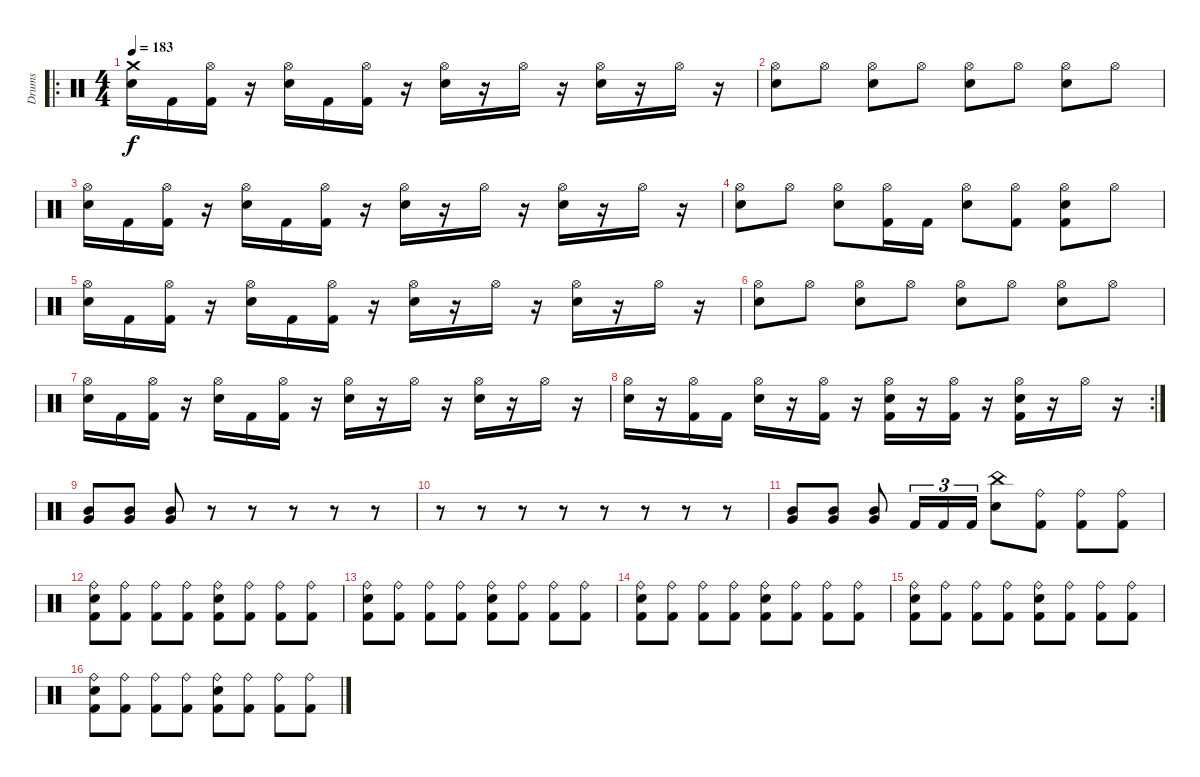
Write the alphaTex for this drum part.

\track ("Drums" "Drums") {instrument percussion}
\staff {score}
\articulation defaults
\ro
\ts (4 4)
\tempo 183
\clef neutral
\ks c
("Electric Snare (hit)" "Crash medium (hit)").16{dy f} "Kick (hit) 2".16 ("Kick (hit) 2" "Hi-Hat (open)").16 r.16 ("Electric Snare (hit)" "Hi-Hat (open)").16 "Kick (hit) 2".16 ("Kick (hit) 2" "Hi-Hat (open)").16 r.16 ("Electric Snare (hit)" "Hi-Hat (open)").16 r.16 "Hi-Hat (open)".16 r.16 ("Electric Snare (hit)" "Hi-Hat (open)").16 r.16 "Hi-Hat (open)".16 r.16 |
("Electric Snare (hit)" "Hi-Hat (open)").8 "Hi-Hat (open)".8 ("Electric Snare (hit)" "Hi-Hat (open)").8 "Hi-Hat (open)".8 ("Electric Snare (hit)" "Hi-Hat (open)").8 "Hi-Hat (open)".8 ("Electric Snare (hit)" "Hi-Hat (open)").8 "Hi-Hat (open)".8 |
("Electric Snare (hit)" "Hi-Hat (open)").16 "Kick (hit) 2".16 ("Kick (hit) 2" "Hi-Hat (open)").16 r.16 ("Electric Snare (hit)" "Hi-Hat (open)").16 "Kick (hit) 2".16 ("Kick (hit) 2" "Hi-Hat (open)").16 r.16 ("Electric Snare (hit)" "Hi-Hat (open)").16 r.16 "Hi-Hat (open)".16 r.16 ("Electric Snare (hit)" "Hi-Hat (open)").16 r.16 "Hi-Hat (open)".16 r.16 |
("Electric Snare (hit)" "Hi-Hat (open)").8 "Hi-Hat (open)".8 ("Electric Snare (hit)" "Hi-Hat (open)").8 ("Kick (hit) 2" "Hi-Hat (open)").16 "Kick (hit) 2".16 ("Electric Snare (hit)" "Hi-Hat (open)").8 ("Kick (hit) 2" "Hi-Hat (open)").8 ("Kick (hit) 2" "Electric Snare (hit)" "Hi-Hat (open)").8 "Hi-Hat (open)".8 |
("Electric Snare (hit)" "Hi-Hat (open)").16 "Kick (hit) 2".16 ("Kick (hit) 2" "Hi-Hat (open)").16 r.16 ("Electric Snare (hit)" "Hi-Hat (open)").16 "Kick (hit) 2".16 ("Kick (hit) 2" "Hi-Hat (open)").16 r.16 ("Electric Snare (hit)" "Hi-Hat (open)").16 r.16 "Hi-Hat (open)".16 r.16 ("Electric Snare (hit)" "Hi-Hat (open)").16 r.16 "Hi-Hat (open)".16 r.16 |
("Electric Snare (hit)" "Hi-Hat (open)").8 "Hi-Hat (open)".8 ("Electric Snare (hit)" "Hi-Hat (open)").8 "Hi-Hat (open)".8 ("Electric Snare (hit)" "Hi-Hat (open)").8 "Hi-Hat (open)".8 ("Electric Snare (hit)" "Hi-Hat (open)").8 "Hi-Hat (open)".8 |
("Electric Snare (hit)" "Hi-Hat (open)").16 "Kick (hit) 2".16 ("Kick (hit) 2" "Hi-Hat (open)").16 r.16 ("Electric Snare (hit)" "Hi-Hat (open)").16 "Kick (hit) 2".16 ("Kick (hit) 2" "Hi-Hat (open)").16 r.16 ("Electric Snare (hit)" "Hi-Hat (open)").16 r.16 "Hi-Hat (open)".16 r.16 ("Electric Snare (hit)" "Hi-Hat (open)").16 r.16 "Hi-Hat (open)".16 r.16 |
\rc 2
("Electric Snare (hit)" "Hi-Hat (open)").16 r.16 ("Kick (hit) 2" "Hi-Hat (open)").16 "Kick (hit) 2".16 ("Electric Snare (hit)" "Hi-Hat (open)").16 r.16 ("Kick (hit) 2" "Hi-Hat (open)").16 r.16 ("Kick (hit) 2" "Electric Snare (hit)" "Hi-Hat (open)").16 r.16 ("Kick (hit) 2" "Hi-Hat (open)").16 r.16 ("Kick (hit) 2" "Electric Snare (hit)" "Hi-Hat (open)").16 r.16 "Hi-Hat (open)".16 r.16 |
("Mid Tom (hit)" "Very Low Tom (hit)").8 ("Mid Tom (hit)" "Very Low Tom (hit)").8 ("Mid Tom (hit)" "Very Low Tom (hit)").8 r.8 r.8 r.8 r.8 r.8 |
r.8 r.8 r.8 r.8 r.8 r.8 r.8 r.8 |
("Mid Tom (hit)" "Very Low Tom (hit)").8 ("Mid Tom (hit)" "Very Low Tom (hit)").8 ("Mid Tom (hit)" "Very Low Tom (hit)").8 "Kick (hit) 2".16{tu (3 2)} "Kick (hit) 2".16{tu (3 2)} "Kick (hit) 2".16{tu (3 2)} ("Electric Snare (hit)" "China (hit)").8 ("Kick (hit) 2" "Ride (bell)").8 ("Kick (hit) 2" "Ride (bell)").8 ("Kick (hit) 2" "Ride (bell)").8 |
("Kick (hit) 2" "Electric Snare (hit)" "Ride (bell)").8 ("Kick (hit) 2" "Ride (bell)").8 ("Kick (hit) 2" "Ride (bell)").8 ("Kick (hit) 2" "Ride (bell)").8 ("Kick (hit) 2" "Electric Snare (hit)" "Ride (bell)").8 ("Kick (hit) 2" "Ride (bell)").8 ("Kick (hit) 2" "Ride (bell)").8 ("Kick (hit) 2" "Ride (bell)").8 |
("Kick (hit) 2" "Electric Snare (hit)" "Ride (bell)").8 ("Kick (hit) 2" "Ride (bell)").8 ("Kick (hit) 2" "Ride (bell)").8 ("Kick (hit) 2" "Ride (bell)").8 ("Kick (hit) 2" "Electric Snare (hit)" "Ride (bell)").8 ("Kick (hit) 2" "Ride (bell)").8 ("Kick (hit) 2" "Ride (bell)").8 ("Kick (hit) 2" "Ride (bell)").8 |
("Kick (hit) 2" "Electric Snare (hit)" "Ride (bell)").8 ("Kick (hit) 2" "Ride (bell)").8 ("Kick (hit) 2" "Ride (bell)").8 ("Kick (hit) 2" "Ride (bell)").8 ("Kick (hit) 2" "Electric Snare (hit)" "Ride (bell)").8 ("Kick (hit) 2" "Ride (bell)").8 ("Kick (hit) 2" "Ride (bell)").8 ("Kick (hit) 2" "Ride (bell)").8 |
("Kick (hit) 2" "Electric Snare (hit)" "Ride (bell)").8 ("Kick (hit) 2" "Ride (bell)").8 ("Kick (hit) 2" "Ride (bell)").8 ("Kick (hit) 2" "Ride (bell)").8 ("Kick (hit) 2" "Electric Snare (hit)" "Ride (bell)").8 ("Kick (hit) 2" "Ride (bell)").8 ("Kick (hit) 2" "Ride (bell)").8 ("Kick (hit) 2" "Ride (bell)").8 |
("Kick (hit) 2" "Electric Snare (hit)" "Ride (bell)").8 ("Kick (hit) 2" "Ride (bell)").8 ("Kick (hit) 2" "Ride (bell)").8 ("Kick (hit) 2" "Ride (bell)").8 ("Kick (hit) 2" "Electric Snare (hit)" "Ride (bell)").8 ("Kick (hit) 2" "Ride (bell)").8 ("Kick (hit) 2" "Ride (bell)").8 ("Kick (hit) 2" "Ride (bell)").8
